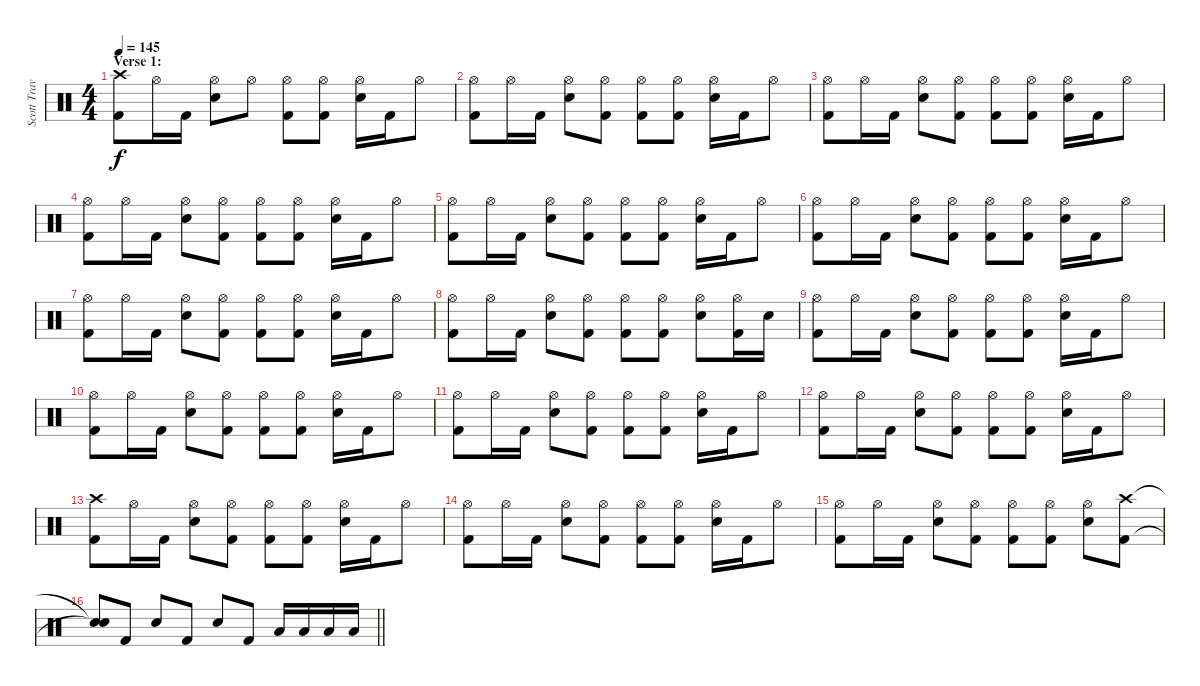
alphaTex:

\track ("Scott Travis" "Scott Trav") {instrument percussion}
\staff {score}
\articulation defaults
\ts (4 4)
\section ("" "Verse 1:")
\tempo 145
\clef neutral
\ks c
("Crash high (hit)" "Kick (hit) 2").8{dy f} "Hi-Hat (open)".16 "Kick (hit) 2".16 ("Hi-Hat (open)" "Snare (hit) 2").8 "Hi-Hat (open)".8 ("Hi-Hat (open)" "Kick (hit) 2").8 ("Hi-Hat (open)" "Kick (hit) 2").8 ("Hi-Hat (open)" "Snare (hit) 2").16 "Kick (hit) 2".16 "Hi-Hat (open)".8 |
("Hi-Hat (open)" "Kick (hit) 2").8 "Hi-Hat (open)".16 "Kick (hit) 2".16 ("Hi-Hat (open)" "Snare (hit) 2").8 ("Hi-Hat (open)" "Kick (hit) 2").8 ("Hi-Hat (open)" "Kick (hit) 2").8 ("Hi-Hat (open)" "Kick (hit) 2").8 ("Hi-Hat (open)" "Snare (hit) 2").16 "Kick (hit) 2".16 "Hi-Hat (open)".8 |
("Hi-Hat (open)" "Kick (hit) 2").8 "Hi-Hat (open)".16 "Kick (hit) 2".16 ("Hi-Hat (open)" "Snare (hit) 2").8 ("Hi-Hat (open)" "Kick (hit) 2").8 ("Hi-Hat (open)" "Kick (hit) 2").8 ("Hi-Hat (open)" "Kick (hit) 2").8 ("Hi-Hat (open)" "Snare (hit) 2").16 "Kick (hit) 2".16 "Hi-Hat (open)".8 |
("Hi-Hat (open)" "Kick (hit) 2").8 "Hi-Hat (open)".16 "Kick (hit) 2".16 ("Hi-Hat (open)" "Snare (hit) 2").8 ("Hi-Hat (open)" "Kick (hit) 2").8 ("Hi-Hat (open)" "Kick (hit) 2").8 ("Hi-Hat (open)" "Kick (hit) 2").8 ("Hi-Hat (open)" "Snare (hit) 2").16 "Kick (hit) 2".16 "Hi-Hat (open)".8 |
("Hi-Hat (open)" "Kick (hit) 2").8 "Hi-Hat (open)".16 "Kick (hit) 2".16 ("Hi-Hat (open)" "Snare (hit) 2").8 ("Hi-Hat (open)" "Kick (hit) 2").8 ("Hi-Hat (open)" "Kick (hit) 2").8 ("Hi-Hat (open)" "Kick (hit) 2").8 ("Hi-Hat (open)" "Snare (hit) 2").16 "Kick (hit) 2".16 "Hi-Hat (open)".8 |
("Hi-Hat (open)" "Kick (hit) 2").8 "Hi-Hat (open)".16 "Kick (hit) 2".16 ("Hi-Hat (open)" "Snare (hit) 2").8 ("Hi-Hat (open)" "Kick (hit) 2").8 ("Hi-Hat (open)" "Kick (hit) 2").8 ("Hi-Hat (open)" "Kick (hit) 2").8 ("Hi-Hat (open)" "Snare (hit) 2").16 "Kick (hit) 2".16 "Hi-Hat (open)".8 |
("Hi-Hat (open)" "Kick (hit) 2").8 "Hi-Hat (open)".16 "Kick (hit) 2".16 ("Hi-Hat (open)" "Snare (hit) 2").8 ("Hi-Hat (open)" "Kick (hit) 2").8 ("Hi-Hat (open)" "Kick (hit) 2").8 ("Hi-Hat (open)" "Kick (hit) 2").8 ("Hi-Hat (open)" "Snare (hit) 2").16 "Kick (hit) 2".16 "Hi-Hat (open)".8 |
("Hi-Hat (open)" "Kick (hit) 2").8 "Hi-Hat (open)".16 "Kick (hit) 2".16 ("Hi-Hat (open)" "Snare (hit) 2").8 ("Hi-Hat (open)" "Kick (hit) 2").8 ("Hi-Hat (open)" "Kick (hit) 2").8 ("Hi-Hat (open)" "Kick (hit) 2").8 ("Hi-Hat (open)" "Snare (hit) 2").8 ("Hi-Hat (open)" "Kick (hit) 2").16 "Snare (hit) 2".16 |
("Hi-Hat (open)" "Kick (hit) 2").8 "Hi-Hat (open)".16 "Kick (hit) 2".16 ("Hi-Hat (open)" "Snare (hit) 2").8 ("Hi-Hat (open)" "Kick (hit) 2").8 ("Hi-Hat (open)" "Kick (hit) 2").8 ("Hi-Hat (open)" "Kick (hit) 2").8 ("Hi-Hat (open)" "Snare (hit) 2").16 "Kick (hit) 2".16 "Hi-Hat (open)".8 |
("Hi-Hat (open)" "Kick (hit) 2").8 "Hi-Hat (open)".16 "Kick (hit) 2".16 ("Hi-Hat (open)" "Snare (hit) 2").8 ("Hi-Hat (open)" "Kick (hit) 2").8 ("Hi-Hat (open)" "Kick (hit) 2").8 ("Hi-Hat (open)" "Kick (hit) 2").8 ("Hi-Hat (open)" "Snare (hit) 2").16 "Kick (hit) 2".16 "Hi-Hat (open)".8 |
("Hi-Hat (open)" "Kick (hit) 2").8 "Hi-Hat (open)".16 "Kick (hit) 2".16 ("Hi-Hat (open)" "Snare (hit) 2").8 ("Hi-Hat (open)" "Kick (hit) 2").8 ("Hi-Hat (open)" "Kick (hit) 2").8 ("Hi-Hat (open)" "Kick (hit) 2").8 ("Hi-Hat (open)" "Snare (hit) 2").16 "Kick (hit) 2".16 "Hi-Hat (open)".8 |
("Hi-Hat (open)" "Kick (hit) 2").8 "Hi-Hat (open)".16 "Kick (hit) 2".16 ("Hi-Hat (open)" "Snare (hit) 2").8 ("Hi-Hat (open)" "Kick (hit) 2").8 ("Hi-Hat (open)" "Kick (hit) 2").8 ("Hi-Hat (open)" "Kick (hit) 2").8 ("Hi-Hat (open)" "Snare (hit) 2").16 "Kick (hit) 2".16 "Hi-Hat (open)".8 |
("Crash high (hit)" "Kick (hit) 2").8 "Hi-Hat (open)".16 "Kick (hit) 2".16 ("Hi-Hat (open)" "Snare (hit) 2").8 ("Hi-Hat (open)" "Kick (hit) 2").8 ("Hi-Hat (open)" "Kick (hit) 2").8 ("Hi-Hat (open)" "Kick (hit) 2").8 ("Hi-Hat (open)" "Snare (hit) 2").16 "Kick (hit) 2".16 "Hi-Hat (open)".8 |
("Hi-Hat (open)" "Kick (hit) 2").8 "Hi-Hat (open)".16 "Kick (hit) 2".16 ("Hi-Hat (open)" "Snare (hit) 2").8 ("Hi-Hat (open)" "Kick (hit) 2").8 ("Hi-Hat (open)" "Kick (hit) 2").8 ("Hi-Hat (open)" "Kick (hit) 2").8 ("Hi-Hat (open)" "Snare (hit) 2").16 "Kick (hit) 2".16 "Hi-Hat (open)".8 |
("Hi-Hat (open)" "Kick (hit) 2").8 "Hi-Hat (open)".16 "Kick (hit) 2".16 ("Hi-Hat (open)" "Snare (hit) 2").8 ("Hi-Hat (open)" "Kick (hit) 2").8 ("Hi-Hat (open)" "Kick (hit) 2").8 ("Hi-Hat (open)" "Kick (hit) 2").8 ("Hi-Hat (open)" "Snare (hit) 2").8 ("Crash high (hit)" "Kick (hit) 2").8 |
\barLineRight lightlight
("Snare (hit)"{t} "Snare (hit)"{t}).8 "Kick (hit) 2".8 "Snare (hit) 2".8 "Kick (hit) 2".8 "Snare (hit) 2".8 "Kick (hit) 2".8 "Low Floor Tom (hit)".16 "Low Floor Tom (hit)".16 "Low Floor Tom (hit)".16 "Low Floor Tom (hit)".16
